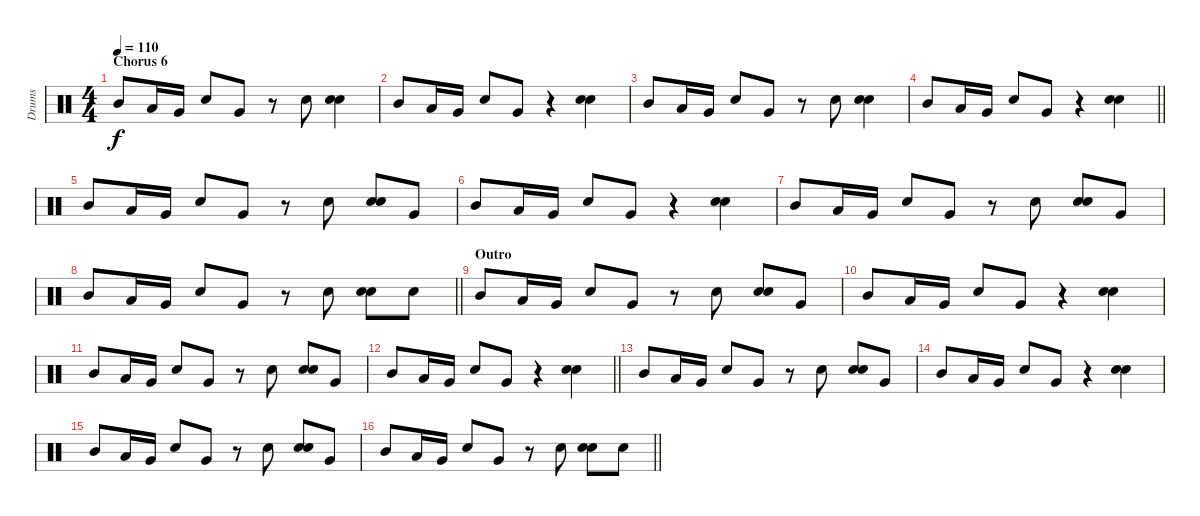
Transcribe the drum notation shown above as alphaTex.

\track ("Drums" "Drums") {instrument percussion}
\staff {score}
\articulation defaults
\ts (4 4)
\section ("" "Chorus 6")
\tempo 110
\clef neutral
\ks c "Mid Tom (hit)".8{dy f} "Low Tom (hit)".16 "Very Low Tom (hit)".16 "Snare (hit) 2".8 "Very Low Tom (hit)".8
r.8 "Snare (hit) 2".8 ("Snare (hit) 2" "Hand Clap (hit)").4 |
"Mid Tom (hit)".8 "Low Tom (hit)".16 "Very Low Tom (hit)".16 "Snare (hit) 2".8 "Very Low Tom (hit)".8 r.4 ("Snare (hit) 2" "Hand Clap (hit)").4 |
"Mid Tom (hit)".8 "Low Tom (hit)".16 "Very Low Tom (hit)".16 "Snare (hit) 2".8 "Very Low Tom (hit)".8 r.8 "Snare (hit) 2".8 ("Snare (hit) 2" "Hand Clap (hit)").4 |
\barLineRight lightlight "Mid Tom (hit)".8 "Low Tom (hit)".16 "Very Low Tom (hit)".16 "Snare (hit) 2".8 "Very Low Tom (hit)".8
r.4 ("Snare (hit) 2" "Hand Clap (hit)").4 |
"Mid Tom (hit)".8 "Low Tom (hit)".16 "Very Low Tom (hit)".16 "Snare (hit) 2".8 "Very Low Tom (hit)".8 r.8 "Snare (hit) 2".8 ("Snare (hit) 2" "Hand Clap (hit)").8 "Very Low Tom (hit)".8 |
"Mid Tom (hit)".8 "Low Tom (hit)".16 "Very Low Tom (hit)".16 "Snare (hit) 2".8 "Very Low Tom (hit)".8 r.4 ("Snare (hit) 2" "Hand Clap (hit)").4 |
"Mid Tom (hit)".8 "Low Tom (hit)".16 "Very Low Tom (hit)".16 "Snare (hit) 2".8 "Very Low Tom (hit)".8 r.8 "Snare (hit) 2".8 ("Snare (hit) 2" "Hand Clap (hit)").8 "Very Low Tom (hit)".8 |
\barLineRight lightlight "Mid Tom (hit)".8 "Low Tom (hit)".16 "Very Low Tom (hit)".16 "Snare (hit) 2".8 "Very Low Tom (hit)".8
r.8 "Snare (hit) 2".8 ("Snare (hit) 2" "Hand Clap (hit)").8 "Snare (hit) 2".8 |
\section ("" "Outro")
"Mid Tom (hit)".8 "Low Tom (hit)".16 "Very Low Tom (hit)".16 "Snare (hit) 2".8 "Very Low Tom (hit)".8 r.8 "Snare (hit) 2".8 ("Snare (hit) 2" "Hand Clap (hit)").8 "Very Low Tom (hit)".8 |
"Mid Tom (hit)".8 "Low Tom (hit)".16 "Very Low Tom (hit)".16 "Snare (hit) 2".8 "Very Low Tom (hit)".8 r.4 ("Snare (hit) 2" "Hand Clap (hit)").4 |
"Mid Tom (hit)".8 "Low Tom (hit)".16 "Very Low Tom (hit)".16 "Snare (hit) 2".8 "Very Low Tom (hit)".8 r.8 "Snare (hit) 2".8 ("Snare (hit) 2" "Hand Clap (hit)").8 "Very Low Tom (hit)".8 |
\barLineRight lightlight "Mid Tom (hit)".8 "Low Tom (hit)".16 "Very Low Tom (hit)".16 "Snare (hit) 2".8 "Very Low Tom (hit)".8
r.4 ("Snare (hit) 2" "Hand Clap (hit)").4 |
"Mid Tom (hit)".8 "Low Tom (hit)".16 "Very Low Tom (hit)".16 "Snare (hit) 2".8 "Very Low Tom (hit)".8 r.8 "Snare (hit) 2".8 ("Snare (hit) 2" "Hand Clap (hit)").8 "Very Low Tom (hit)".8 |
"Mid Tom (hit)".8 "Low Tom (hit)".16 "Very Low Tom (hit)".16 "Snare (hit) 2".8 "Very Low Tom (hit)".8 r.4 ("Snare (hit) 2" "Hand Clap (hit)").4 |
"Mid Tom (hit)".8 "Low Tom (hit)".16 "Very Low Tom (hit)".16 "Snare (hit) 2".8 "Very Low Tom (hit)".8 r.8 "Snare (hit) 2".8 ("Snare (hit) 2" "Hand Clap (hit)").8 "Very Low Tom (hit)".8 |
\barLineRight lightlight "Mid Tom (hit)".8 "Low Tom (hit)".16 "Very Low Tom (hit)".16 "Snare (hit) 2".8 "Very Low Tom (hit)".8
r.8 "Snare (hit) 2".8 ("Snare (hit) 2" "Hand Clap (hit)").8 "Snare (hit) 2".8
